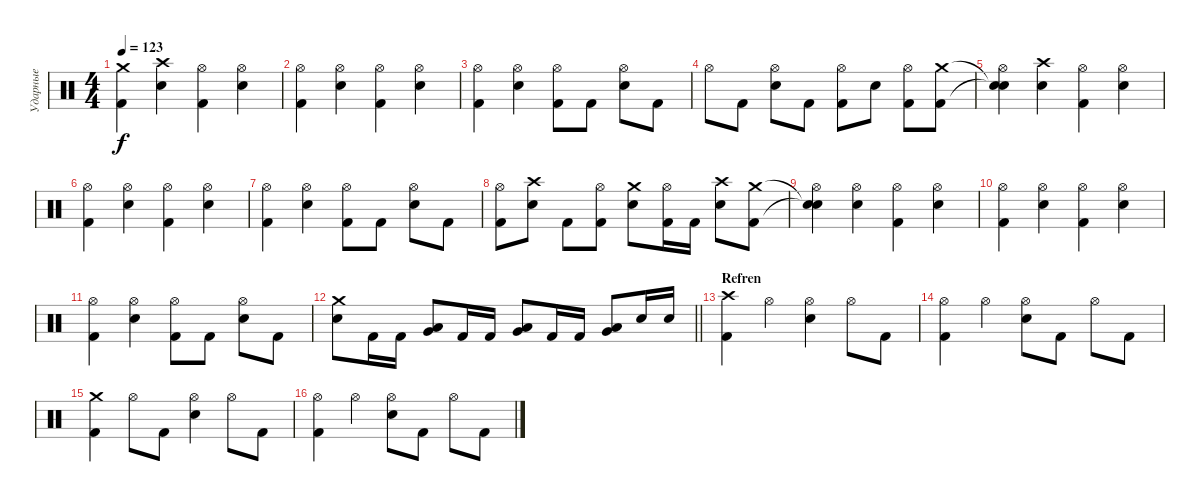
\track ("Ударные" "Ударные") {instrument percussion}
\staff {score}
\articulation defaults
\ts (4 4)
\tempo 123
\clef neutral
\ks c
("Crash medium (hit)" "Kick (hit) 2").4{dy f} ("Crash high (hit)" "Snare (hit) 2").4 ("Kick (hit) 2" "Hi-Hat (open)").4 ("Snare (hit) 2" "Hi-Hat (open)").4 |
("Kick (hit) 2" "Hi-Hat (open)").4 ("Snare (hit) 2" "Hi-Hat (open)").4 ("Kick (hit) 2" "Hi-Hat (open)").4 ("Snare (hit) 2" "Hi-Hat (open)").4 |
("Kick (hit) 2" "Hi-Hat (open)").4 ("Snare (hit) 2" "Hi-Hat (open)").4 ("Kick (hit) 2" "Hi-Hat (open)").8 "Kick (hit) 2".8 ("Snare (hit) 2" "Hi-Hat (open)").8 "Kick (hit) 2".8 |
"Hi-Hat (open)".8 "Kick (hit) 2".8 ("Snare (hit) 2" "Hi-Hat (open)").8 "Kick (hit) 2".8 ("Kick (hit) 2" "Hi-Hat (open)").8 "Snare (hit) 2".8 ("Kick (hit) 2" "Hi-Hat (open)").8 ("Crash medium (hit)" "Kick (hit) 2").8 |
("Snare (hit)"{t} "Snare (hit)"{t} "Hi-Hat (open)").4 ("Crash high (hit)" "Snare (hit) 2").4 ("Kick (hit) 2" "Hi-Hat (open)").4 ("Snare (hit) 2" "Hi-Hat (open)").4 |
("Kick (hit) 2" "Hi-Hat (open)").4 ("Snare (hit) 2" "Hi-Hat (open)").4 ("Kick (hit) 2" "Hi-Hat (open)").4 ("Snare (hit) 2" "Hi-Hat (open)").4 |
("Kick (hit) 2" "Hi-Hat (open)").4 ("Snare (hit) 2" "Hi-Hat (open)").4 ("Kick (hit) 2" "Hi-Hat (open)").8 "Kick (hit) 2".8 ("Snare (hit) 2" "Hi-Hat (open)").8 "Kick (hit) 2".8 |
("Kick (hit) 2" "Hi-Hat (open)").8 ("Crash high (hit)" "Snare (hit) 2").8 "Kick (hit) 2".8 ("Kick (hit) 2" "Hi-Hat (open)").8 ("Crash medium (hit)" "Snare (hit) 2").8 ("Kick (hit) 2" "Hi-Hat (open)").16 "Kick (hit) 2".16 ("Crash high (hit)" "Snare (hit) 2").8 ("Crash medium (hit)" "Kick (hit) 2").8 |
("Snare (hit)"{t} "Snare (hit)"{t} "Hi-Hat (open)").4 ("Snare (hit) 2" "Hi-Hat (open)").4 ("Kick (hit) 2" "Hi-Hat (open)").4 ("Snare (hit) 2" "Hi-Hat (open)").4 |
("Kick (hit) 2" "Hi-Hat (open)").4 ("Snare (hit) 2" "Hi-Hat (open)").4 ("Kick (hit) 2" "Hi-Hat (open)").4 ("Snare (hit) 2" "Hi-Hat (open)").4 |
("Kick (hit) 2" "Hi-Hat (open)").4 ("Snare (hit) 2" "Hi-Hat (open)").4 ("Kick (hit) 2" "Hi-Hat (open)").8 "Kick (hit) 2".8 ("Snare (hit) 2" "Hi-Hat (open)").8 "Kick (hit) 2".8 |
\barLineRight lightlight
("Crash medium (hit)" "Snare (hit) 2").8 "Kick (hit) 2".16 "Kick (hit) 2".16 ("Low Tom (hit)" "Very Low Tom (hit)").8 "Kick (hit) 2".16 "Kick (hit) 2".16 ("Low Tom (hit)" "Very Low Tom (hit)").8 "Kick (hit) 2".16 "Kick (hit) 2".16 ("Low Tom (hit)" "Very Low Tom (hit)").8 "Snare (hit) 2".16 "Snare (hit) 2".16 |
\section ("" "Refren")
("Crash high (hit)" "Kick (hit) 2").4 "Hi-Hat (open)".4 ("Snare (hit) 2" "Hi-Hat (open)").4 "Hi-Hat (open)".8 "Kick (hit) 2".8 |
("Kick (hit) 2" "Hi-Hat (open)").4 "Hi-Hat (open)".4 ("Snare (hit) 2" "Hi-Hat (open)").8 "Kick (hit) 2".8 "Hi-Hat (open)".8 "Kick (hit) 2".8 |
("Crash medium (hit)" "Kick (hit) 2").4 "Hi-Hat (open)".8 "Kick (hit) 2".8 ("Snare (hit) 2" "Hi-Hat (open)").4 "Hi-Hat (open)".8 "Kick (hit) 2".8 |
("Kick (hit) 2" "Hi-Hat (open)").4 "Hi-Hat (open)".4 ("Snare (hit) 2" "Hi-Hat (open)").8 "Kick (hit) 2".8 "Hi-Hat (open)".8 "Kick (hit) 2".8
